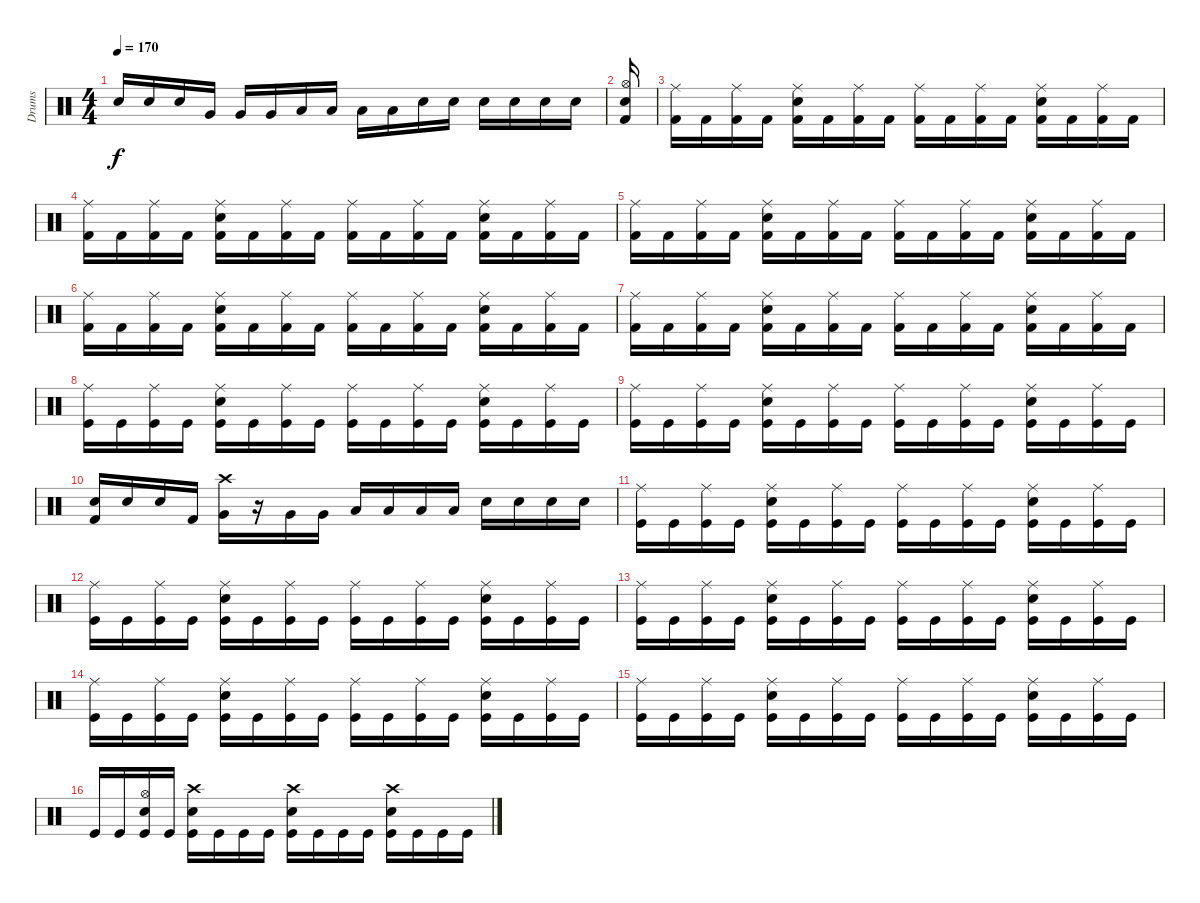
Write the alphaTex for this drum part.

\track ("Drums" "Drums") {instrument percussion}
\staff {score}
\articulation defaults
\ts (4 4)
\tempo 170
\clef neutral
\ks c "Electric Snare (hit)".16{dy f} "Electric Snare (hit)".16 "Electric Snare (hit)".16 "Very Low Tom (hit)".16 "Very Low Tom (hit)".16 "Very Low Tom (hit)".16 "Low Tom (hit)".16 "Low Tom (hit)".16 "Low Tom (hit)".16 "Low Tom (hit)".16 "Electric Snare (hit)".16 "Electric Snare (hit)".16 "Electric Snare (hit)".16 "Electric Snare (hit)".16 "Electric Snare (hit)".16 "Electric Snare (hit)".16
|
("Hi-Hat (open)" "Electric Snare (hit)" "Kick (hit) 2").16 |
("Ride (middle)" "Kick (hit) 2").16 "Kick (hit) 2".16 ("Ride (middle)" "Kick (hit) 2").16 "Kick (hit) 2".16 ("Ride (middle)" "Electric Snare (hit)" "Kick (hit) 2").16 "Kick (hit) 2".16 ("Ride (middle)" "Kick (hit) 2").16 "Kick (hit) 2".16 ("Ride (middle)" "Kick (hit) 2").16 "Kick (hit) 2".16 ("Ride (middle)" "Kick (hit) 2").16 "Kick (hit) 2".16 ("Ride (middle)" "Electric Snare (hit)" "Kick (hit) 2").16 "Kick (hit) 2".16 ("Ride (middle)" "Kick (hit) 2").16 "Kick (hit) 2".16 |
("Ride (middle)" "Kick (hit) 2").16 "Kick (hit) 2".16 ("Ride (middle)" "Kick (hit) 2").16 "Kick (hit) 2".16 ("Ride (middle)" "Electric Snare (hit)" "Kick (hit) 2").16 "Kick (hit) 2".16 ("Ride (middle)" "Kick (hit) 2").16 "Kick (hit) 2".16 ("Ride (middle)" "Kick (hit) 2").16 "Kick (hit) 2".16 ("Ride (middle)" "Kick (hit) 2").16 "Kick (hit) 2".16 ("Ride (middle)" "Electric Snare (hit)" "Kick (hit) 2").16 "Kick (hit) 2".16 ("Ride (middle)" "Kick (hit) 2").16 "Kick (hit) 2".16 |
("Ride (middle)" "Kick (hit) 2").16 "Kick (hit) 2".16 ("Ride (middle)" "Kick (hit) 2").16 "Kick (hit) 2".16 ("Ride (middle)" "Electric Snare (hit)" "Kick (hit) 2").16 "Kick (hit) 2".16 ("Ride (middle)" "Kick (hit) 2").16 "Kick (hit) 2".16 ("Ride (middle)" "Kick (hit) 2").16 "Kick (hit) 2".16 ("Ride (middle)" "Kick (hit) 2").16 "Kick (hit) 2".16 ("Ride (middle)" "Electric Snare (hit)" "Kick (hit) 2").16 "Kick (hit) 2".16 ("Ride (middle)" "Kick (hit) 2").16 "Kick (hit) 2".16 |
("Ride (middle)" "Kick (hit) 2").16 "Kick (hit) 2".16 ("Ride (middle)" "Kick (hit) 2").16 "Kick (hit) 2".16 ("Ride (middle)" "Electric Snare (hit)" "Kick (hit) 2").16 "Kick (hit) 2".16 ("Ride (middle)" "Kick (hit) 2").16 "Kick (hit) 2".16 ("Ride (middle)" "Kick (hit) 2").16 "Kick (hit) 2".16 ("Ride (middle)" "Kick (hit) 2").16 "Kick (hit) 2".16 ("Ride (middle)" "Electric Snare (hit)" "Kick (hit) 2").16 "Kick (hit) 2".16 ("Ride (middle)" "Kick (hit) 2").16 "Kick (hit) 2".16 |
("Ride (middle)" "Kick (hit) 2").16 "Kick (hit) 2".16 ("Ride (middle)" "Kick (hit) 2").16 "Kick (hit) 2".16 ("Ride (middle)" "Electric Snare (hit)" "Kick (hit) 2").16 "Kick (hit) 2".16 ("Ride (middle)" "Kick (hit) 2").16 "Kick (hit) 2".16 ("Ride (middle)" "Kick (hit) 2").16 "Kick (hit) 2".16 ("Ride (middle)" "Kick (hit) 2").16 "Kick (hit) 2".16 ("Ride (middle)" "Electric Snare (hit)" "Kick (hit) 2").16 "Kick (hit) 2".16 ("Ride (middle)" "Kick (hit) 2").16 "Kick (hit) 2".16 |
("Ride (middle)" "Kick (hit)").16 "Kick (hit)".16 ("Ride (middle)" "Kick (hit)").16 "Kick (hit)".16 ("Ride (middle)" "Electric Snare (hit)" "Kick (hit)").16 "Kick (hit)".16 ("Ride (middle)" "Kick (hit)").16 "Kick (hit)".16 ("Ride (middle)" "Kick (hit)").16 "Kick (hit)".16 ("Ride (middle)" "Kick (hit)").16 "Kick (hit)".16 ("Ride (middle)" "Electric Snare (hit)" "Kick (hit)").16 "Kick (hit)".16 ("Ride (middle)" "Kick (hit)").16 "Kick (hit)".16 |
("Ride (middle)" "Kick (hit)").16 "Kick (hit)".16 ("Ride (middle)" "Kick (hit)").16 "Kick (hit)".16 ("Ride (middle)" "Electric Snare (hit)" "Kick (hit)").16 "Kick (hit)".16 ("Ride (middle)" "Kick (hit)").16 "Kick (hit)".16 ("Ride (middle)" "Kick (hit)").16 "Kick (hit)".16 ("Ride (middle)" "Kick (hit)").16 "Kick (hit)".16 ("Ride (middle)" "Electric Snare (hit)" "Kick (hit)").16 "Kick (hit)".16 ("Ride (middle)" "Kick (hit)").16 "Kick (hit)".16 |
("Electric Snare (hit)" "Kick (hit) 2").16 "Electric Snare (hit)".16 "Electric Snare (hit)".16 "Kick (hit) 2".16 ("Crash high (hit)" "Very Low Tom (hit)").16 r.16 "Very Low Tom (hit)".16 "Very Low Tom (hit)".16 "Low Tom (hit)".16 "Low Tom (hit)".16 "Low Tom (hit)".16 "Low Tom (hit)".16 "Electric Snare (hit)".16 "Electric Snare (hit)".16 "Electric Snare (hit)".16 "Electric Snare (hit)".16 |
("Ride (middle)" "Kick (hit)").16 "Kick (hit)".16 ("Ride (middle)" "Kick (hit)").16 "Kick (hit)".16 ("Ride (middle)" "Electric Snare (hit)" "Kick (hit)").16 "Kick (hit)".16 ("Ride (middle)" "Kick (hit)").16 "Kick (hit)".16 ("Ride (middle)" "Kick (hit)").16 "Kick (hit)".16 ("Ride (middle)" "Kick (hit)").16 "Kick (hit)".16 ("Ride (middle)" "Electric Snare (hit)" "Kick (hit)").16 "Kick (hit)".16 ("Ride (middle)" "Kick (hit)").16 "Kick (hit)".16 |
("Ride (middle)" "Kick (hit)").16 "Kick (hit)".16 ("Ride (middle)" "Kick (hit)").16 "Kick (hit)".16 ("Ride (middle)" "Electric Snare (hit)" "Kick (hit)").16 "Kick (hit)".16 ("Ride (middle)" "Kick (hit)").16 "Kick (hit)".16 ("Ride (middle)" "Kick (hit)").16 "Kick (hit)".16 ("Ride (middle)" "Kick (hit)").16 "Kick (hit)".16 ("Ride (middle)" "Electric Snare (hit)" "Kick (hit)").16 "Kick (hit)".16 ("Ride (middle)" "Kick (hit)").16 "Kick (hit)".16 |
("Ride (middle)" "Kick (hit)").16 "Kick (hit)".16 ("Ride (middle)" "Kick (hit)").16 "Kick (hit)".16 ("Ride (middle)" "Electric Snare (hit)" "Kick (hit)").16 "Kick (hit)".16 ("Ride (middle)" "Kick (hit)").16 "Kick (hit)".16 ("Ride (middle)" "Kick (hit)").16 "Kick (hit)".16 ("Ride (middle)" "Kick (hit)").16 "Kick (hit)".16 ("Ride (middle)" "Electric Snare (hit)" "Kick (hit)").16 "Kick (hit)".16 ("Ride (middle)" "Kick (hit)").16 "Kick (hit)".16 |
("Ride (middle)" "Kick (hit)").16 "Kick (hit)".16 ("Ride (middle)" "Kick (hit)").16 "Kick (hit)".16 ("Ride (middle)" "Electric Snare (hit)" "Kick (hit)").16 "Kick (hit)".16 ("Ride (middle)" "Kick (hit)").16 "Kick (hit)".16 ("Ride (middle)" "Kick (hit)").16 "Kick (hit)".16 ("Ride (middle)" "Kick (hit)").16 "Kick (hit)".16 ("Ride (middle)" "Electric Snare (hit)" "Kick (hit)").16 "Kick (hit)".16 ("Ride (middle)" "Kick (hit)").16 "Kick (hit)".16 |
("Ride (middle)" "Kick (hit)").16 "Kick (hit)".16 ("Ride (middle)" "Kick (hit)").16 "Kick (hit)".16 ("Ride (middle)" "Electric Snare (hit)" "Kick (hit)").16 "Kick (hit)".16 ("Ride (middle)" "Kick (hit)").16 "Kick (hit)".16 ("Ride (middle)" "Kick (hit)").16 "Kick (hit)".16 ("Ride (middle)" "Kick (hit)").16 "Kick (hit)".16 ("Ride (middle)" "Electric Snare (hit)" "Kick (hit)").16 "Kick (hit)".16 ("Ride (middle)" "Kick (hit)").16 "Kick (hit)".16 |
"Kick (hit)".16 "Kick (hit)".16 ("Hi-Hat (open)" "Electric Snare (hit)" "Kick (hit)").16 "Kick (hit)".16 ("Crash high (hit)" "Electric Snare (hit)" "Kick (hit)").16 "Kick (hit)".16 "Kick (hit)".16 "Kick (hit)".16 ("Crash high (hit)" "Electric Snare (hit)" "Kick (hit)").16 "Kick (hit)".16 "Kick (hit)".16 "Kick (hit)".16 ("Crash high (hit)" "Electric Snare (hit)" "Kick (hit)").16 "Kick (hit)".16 "Kick (hit)".16 "Kick (hit)".16
